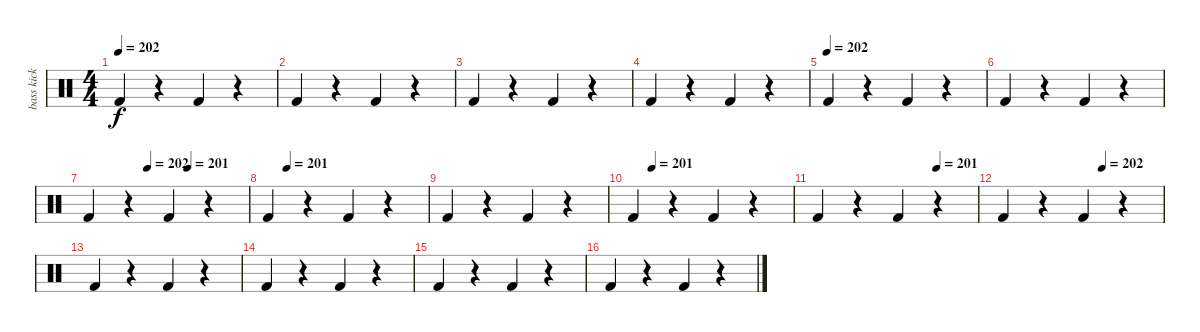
\track ("bass kick" "bass kick") {instrument percussion}
\staff {score}
\articulation defaults
\ts (4 4)
\tempo 202
\clef neutral
\ks c "Kick (hit) 2".4{dy f}
r.4 "Kick (hit) 2".4 r.4 |
"Kick (hit) 2".4 r.4 "Kick (hit) 2".4 r.4 |
"Kick (hit) 2".4 r.4 "Kick (hit) 2".4 r.4 |
"Kick (hit) 2".4 r.4 "Kick (hit) 2".4 r.4 |
\tempo (202)
"Kick (hit) 2".4 r.4 "Kick (hit) 2".4 r.4 |
"Kick (hit) 2".4 r.4 "Kick (hit) 2".4 r.4 |
\tempo (202 0.375)
\tempo (201 0.625)
"Kick (hit) 2".4 r.4 "Kick (hit) 2".4 r.4 |
\tempo (201 0.125)
"Kick (hit) 2".4 r.4 "Kick (hit) 2".4 r.4 |
"Kick (hit) 2".4 r.4 "Kick (hit) 2".4 r.4 |
\tempo (201 0.125)
"Kick (hit) 2".4 r.4 "Kick (hit) 2".4 r.4 |
\tempo (201 0.75)
"Kick (hit) 2".4 r.4 "Kick (hit) 2".4 r.4 |
\tempo (202 0.625)
"Kick (hit) 2".4 r.4 "Kick (hit) 2".4 r.4 |
"Kick (hit) 2".4 r.4 "Kick (hit) 2".4 r.4 |
"Kick (hit) 2".4 r.4 "Kick (hit) 2".4 r.4 |
"Kick (hit) 2".4 r.4 "Kick (hit) 2".4 r.4 |
"Kick (hit) 2".4 r.4 "Kick (hit) 2".4 r.4
